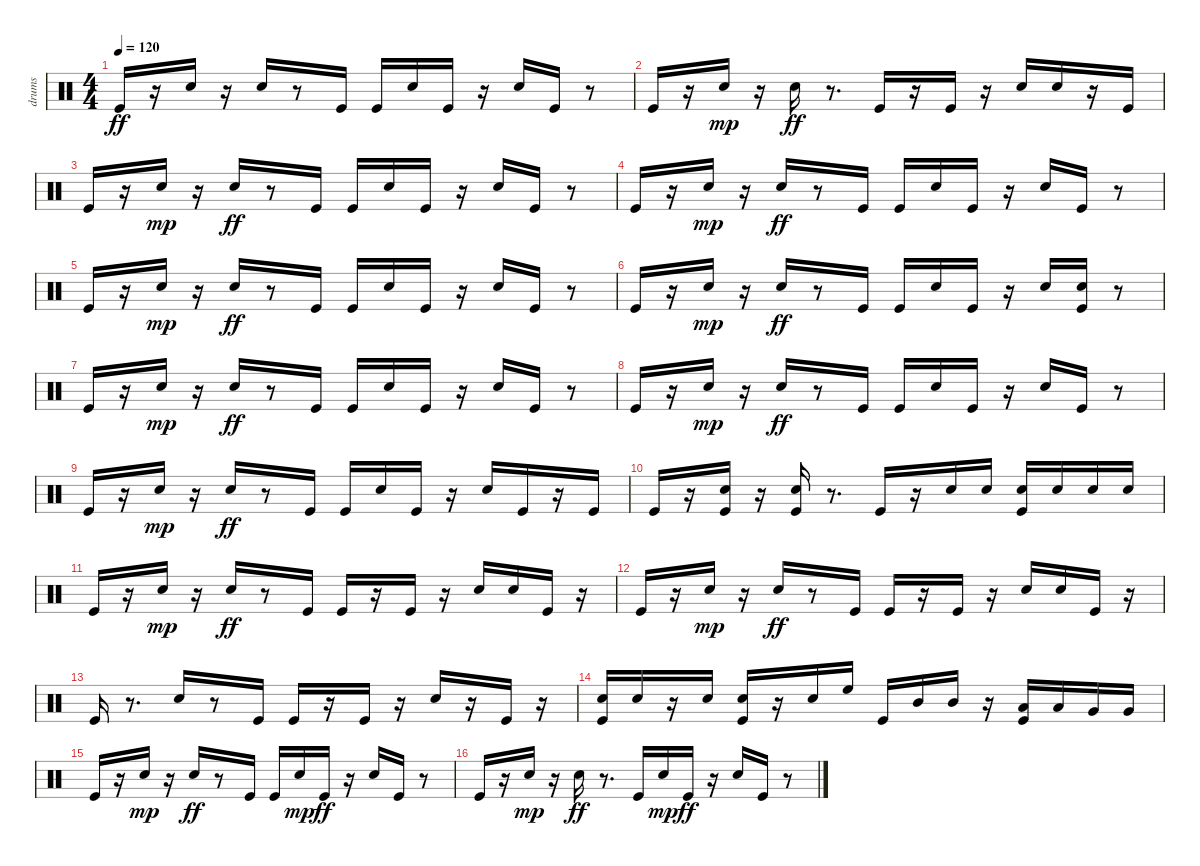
\track ("drums" "drums") {instrument percussion}
\staff {score}
\articulation defaults
\ts (4 4)
\tempo 120
\clef neutral
\ks c "Kick (hit)".16{dy ff}
r.16 "Electric Snare (hit)".16 r.16 "Electric Snare (hit)".16 r.8 "Kick (hit)".16 "Kick (hit)".16 "Electric Snare (hit)".16 "Kick (hit)".16 r.16 "Electric Snare (hit)".16 "Kick (hit)".16 r.8 |
"Kick (hit)".16 r.16 "Electric Snare (hit)".16{dy mp} r.16 "Electric Snare (hit)".16{dy ff} r.8{d} "Kick (hit)".16 r.16 "Kick (hit)".16 r.16 "Electric Snare (hit)".16 "Electric Snare (hit)".16 r.16 "Kick (hit)".16 |
"Kick (hit)".16 r.16 "Electric Snare (hit)".16{dy mp} r.16 "Electric Snare (hit)".16{dy ff} r.8 "Kick (hit)".16 "Kick (hit)".16 "Electric Snare (hit)".16 "Kick (hit)".16 r.16 "Electric Snare (hit)".16 "Kick (hit)".16 r.8 |
"Kick (hit)".16 r.16 "Electric Snare (hit)".16{dy mp} r.16 "Electric Snare (hit)".16{dy ff} r.8 "Kick (hit)".16 "Kick (hit)".16 "Electric Snare (hit)".16 "Kick (hit)".16 r.16 "Electric Snare (hit)".16 "Kick (hit)".16 r.8 |
"Kick (hit)".16 r.16 "Electric Snare (hit)".16{dy mp} r.16 "Electric Snare (hit)".16{dy ff} r.8 "Kick (hit)".16 "Kick (hit)".16 "Electric Snare (hit)".16 "Kick (hit)".16 r.16 "Electric Snare (hit)".16 "Kick (hit)".16 r.8 |
"Kick (hit)".16 r.16 "Electric Snare (hit)".16{dy mp} r.16 "Electric Snare (hit)".16{dy ff} r.8 "Kick (hit)".16 "Kick (hit)".16 "Electric Snare (hit)".16 "Kick (hit)".16 r.16 "Electric Snare (hit)".16 ("Kick (hit)" "Electric Snare (hit)").16 r.8 |
"Kick (hit)".16 r.16 "Electric Snare (hit)".16{dy mp} r.16 "Electric Snare (hit)".16{dy ff} r.8 "Kick (hit)".16 "Kick (hit)".16 "Electric Snare (hit)".16 "Kick (hit)".16 r.16 "Electric Snare (hit)".16 "Kick (hit)".16 r.8 |
"Kick (hit)".16 r.16 "Electric Snare (hit)".16{dy mp} r.16 "Electric Snare (hit)".16{dy ff} r.8 "Kick (hit)".16 "Kick (hit)".16 "Electric Snare (hit)".16 "Kick (hit)".16 r.16 "Electric Snare (hit)".16 "Kick (hit)".16 r.8 |
"Kick (hit)".16 r.16 "Electric Snare (hit)".16{dy mp} r.16 "Electric Snare (hit)".16{dy ff} r.8 "Kick (hit)".16 "Kick (hit)".16 "Electric Snare (hit)".16 "Kick (hit)".16 r.16 "Electric Snare (hit)".16 "Kick (hit)".16 r.16 "Kick (hit)".16 |
"Kick (hit)".16 r.16 ("Electric Snare (hit)" "Kick (hit)").16 r.16 ("Kick (hit)" "Electric Snare (hit)").16 r.8{d} "Kick (hit)".16 r.16 "Electric Snare (hit)".16 "Electric Snare (hit)".16 ("Electric Snare (hit)" "Kick (hit)").16 "Electric Snare (hit)".16 "Electric Snare (hit)".16 "Electric Snare (hit)".16 |
"Kick (hit)".16 r.16 "Electric Snare (hit)".16{dy mp} r.16 "Electric Snare (hit)".16{dy ff} r.8 "Kick (hit)".16 "Kick (hit)".16 r.16 "Kick (hit)".16 r.16 "Electric Snare (hit)".16 "Electric Snare (hit)".16 "Kick (hit)".16 r.16 |
"Kick (hit)".16 r.16 "Electric Snare (hit)".16{dy mp} r.16 "Electric Snare (hit)".16{dy ff} r.8 "Kick (hit)".16 "Kick (hit)".16 r.16 "Kick (hit)".16 r.16 "Electric Snare (hit)".16 "Electric Snare (hit)".16 "Kick (hit)".16 r.16 |
"Kick (hit)".16 r.8{d} "Electric Snare (hit)".16 r.8 "Kick (hit)".16 "Kick (hit)".16 r.16 "Kick (hit)".16 r.16 "Electric Snare (hit)".16 r.16 "Kick (hit)".16 r.16 |
("Electric Snare (hit)" "Kick (hit)").16 "Electric Snare (hit)".16 r.16 "Electric Snare (hit)".16 ("Electric Snare (hit)" "Kick (hit)").16 r.16 "Electric Snare (hit)".16 "High Floor Tom (hit)".16 "Kick (hit)".16 "Mid Tom (hit)".16 "Mid Tom (hit)".16 r.16 ("Low Tom (hit)" "Kick (hit)").16 "Low Tom (hit)".16 "Very Low Tom (hit)".16 "Very Low Tom (hit)".16 |
"Kick (hit)".16 r.16 "Electric Snare (hit)".16{dy mp} r.16 "Electric Snare (hit)".16{dy ff} r.8 "Kick (hit)".16 "Kick (hit)".16 "Electric Snare (hit)".16{dy mp} "Kick (hit)".16{dy ff} r.16 "Electric Snare (hit)".16 "Kick (hit)".16 r.8 |
"Kick (hit)".16 r.16 "Electric Snare (hit)".16{dy mp} r.16 "Electric Snare (hit)".16{dy ff} r.8{d} "Kick (hit)".16 "Electric Snare (hit)".16{dy mp} "Kick (hit)".16{dy ff} r.16 "Electric Snare (hit)".16 "Kick (hit)".16 r.8
